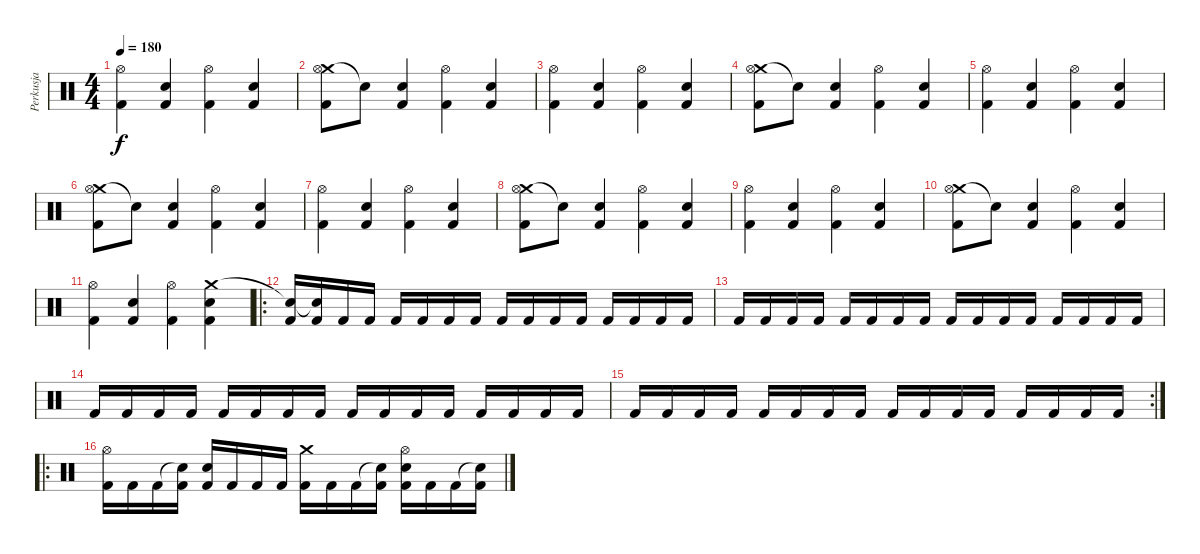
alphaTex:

\track ("Perkusja" "Perkusja") {instrument percussion}
\staff {score}
\articulation defaults
\ts (4 4)
\tempo 180
\clef neutral
\ks c
("Hi-Hat (open)" "Kick (hit) 2").4{dy f} ("Electric Snare (hit)" "Kick (hit) 2").4 ("Hi-Hat (open)" "Kick (hit) 2").4 ("Electric Snare (hit)" "Kick (hit) 2").4 |
("Crash medium (hit)" "Hi-Hat (open)" "Kick (hit) 2").8 "Snare (hit)"{t}.8 ("Electric Snare (hit)" "Kick (hit) 2").4 ("Hi-Hat (open)" "Kick (hit) 2").4 ("Electric Snare (hit)" "Kick (hit) 2").4 |
("Hi-Hat (open)" "Kick (hit) 2").4 ("Electric Snare (hit)" "Kick (hit) 2").4 ("Hi-Hat (open)" "Kick (hit) 2").4 ("Electric Snare (hit)" "Kick (hit) 2").4 |
("Crash medium (hit)" "Hi-Hat (open)" "Kick (hit) 2").8 "Snare (hit)"{t}.8 ("Electric Snare (hit)" "Kick (hit) 2").4 ("Hi-Hat (open)" "Kick (hit) 2").4 ("Electric Snare (hit)" "Kick (hit) 2").4 |
("Hi-Hat (open)" "Kick (hit) 2").4 ("Electric Snare (hit)" "Kick (hit) 2").4 ("Hi-Hat (open)" "Kick (hit) 2").4 ("Electric Snare (hit)" "Kick (hit) 2").4 |
("Crash medium (hit)" "Hi-Hat (open)" "Kick (hit) 2").8 "Snare (hit)"{t}.8 ("Electric Snare (hit)" "Kick (hit) 2").4 ("Hi-Hat (open)" "Kick (hit) 2").4 ("Electric Snare (hit)" "Kick (hit) 2").4 |
("Hi-Hat (open)" "Kick (hit) 2").4 ("Electric Snare (hit)" "Kick (hit) 2").4 ("Hi-Hat (open)" "Kick (hit) 2").4 ("Electric Snare (hit)" "Kick (hit) 2").4 |
("Crash medium (hit)" "Hi-Hat (open)" "Kick (hit) 2").8 "Snare (hit)"{t}.8 ("Electric Snare (hit)" "Kick (hit) 2").4 ("Hi-Hat (open)" "Kick (hit) 2").4 ("Electric Snare (hit)" "Kick (hit) 2").4 |
("Hi-Hat (open)" "Kick (hit) 2").4 ("Electric Snare (hit)" "Kick (hit) 2").4 ("Hi-Hat (open)" "Kick (hit) 2").4 ("Electric Snare (hit)" "Kick (hit) 2").4 |
("Crash medium (hit)" "Hi-Hat (open)" "Kick (hit) 2").8 "Snare (hit)"{t}.8 ("Electric Snare (hit)" "Kick (hit) 2").4 ("Hi-Hat (open)" "Kick (hit) 2").4 ("Electric Snare (hit)" "Kick (hit) 2").4 |
("Hi-Hat (open)" "Kick (hit) 2").4 ("Electric Snare (hit)" "Kick (hit) 2").4 ("Hi-Hat (open)" "Kick (hit) 2").4 ("Crash medium (hit)" "Electric Snare (hit)" "Kick (hit) 2").4 |
\ro
("Snare (hit)"{t} "Kick (hit) 2").16 ("Snare (hit)"{t} "Kick (hit) 2").16 "Kick (hit) 2".16 "Kick (hit) 2".16 "Kick (hit) 2".16 "Kick (hit) 2".16 "Kick (hit) 2".16 "Kick (hit) 2".16 "Kick (hit) 2".16 "Kick (hit) 2".16 "Kick (hit) 2".16 "Kick (hit) 2".16 "Kick (hit) 2".16 "Kick (hit) 2".16 "Kick (hit) 2".16 "Kick (hit) 2".16 |
"Kick (hit) 2".16 "Kick (hit) 2".16 "Kick (hit) 2".16 "Kick (hit) 2".16 "Kick (hit) 2".16 "Kick (hit) 2".16 "Kick (hit) 2".16 "Kick (hit) 2".16 "Kick (hit) 2".16 "Kick (hit) 2".16 "Kick (hit) 2".16 "Kick (hit) 2".16 "Kick (hit) 2".16 "Kick (hit) 2".16 "Kick (hit) 2".16 "Kick (hit) 2".16 |
"Kick (hit) 2".16 "Kick (hit) 2".16 "Kick (hit) 2".16 "Kick (hit) 2".16 "Kick (hit) 2".16 "Kick (hit) 2".16 "Kick (hit) 2".16 "Kick (hit) 2".16 "Kick (hit) 2".16 "Kick (hit) 2".16 "Kick (hit) 2".16 "Kick (hit) 2".16 "Kick (hit) 2".16 "Kick (hit) 2".16 "Kick (hit) 2".16 "Kick (hit) 2".16 |
\rc 2 "Kick (hit) 2".16 "Kick (hit) 2".16 "Kick (hit) 2".16 "Kick (hit) 2".16 "Kick (hit) 2".16 "Kick (hit) 2".16 "Kick (hit) 2".16 "Kick (hit) 2".16 "Kick (hit) 2".16 "Kick (hit) 2".16 "Kick (hit) 2".16 "Kick (hit) 2".16 "Kick (hit) 2".16 "Kick (hit) 2".16 "Kick (hit) 2".16 "Kick (hit) 2".16
|
\ro
("Hi-Hat (open)" "Kick (hit) 2").16 "Kick (hit) 2".16 "Kick (hit) 2".16 ("Snare (hit)"{t} "Kick (hit) 2").16 ("Electric Snare (hit)" "Kick (hit) 2").16 "Kick (hit) 2".16 "Kick (hit) 2".16 "Kick (hit) 2".16 ("Crash medium (hit)" "Kick (hit) 2").16 "Kick (hit) 2".16 "Kick (hit) 2".16 ("Snare (hit)"{t} "Kick (hit) 2").16 ("Hi-Hat (open)" "Electric Snare (hit)" "Kick (hit) 2").16 "Kick (hit) 2".16 "Kick (hit) 2".16 ("Snare (hit)"{t} "Kick (hit) 2").16
